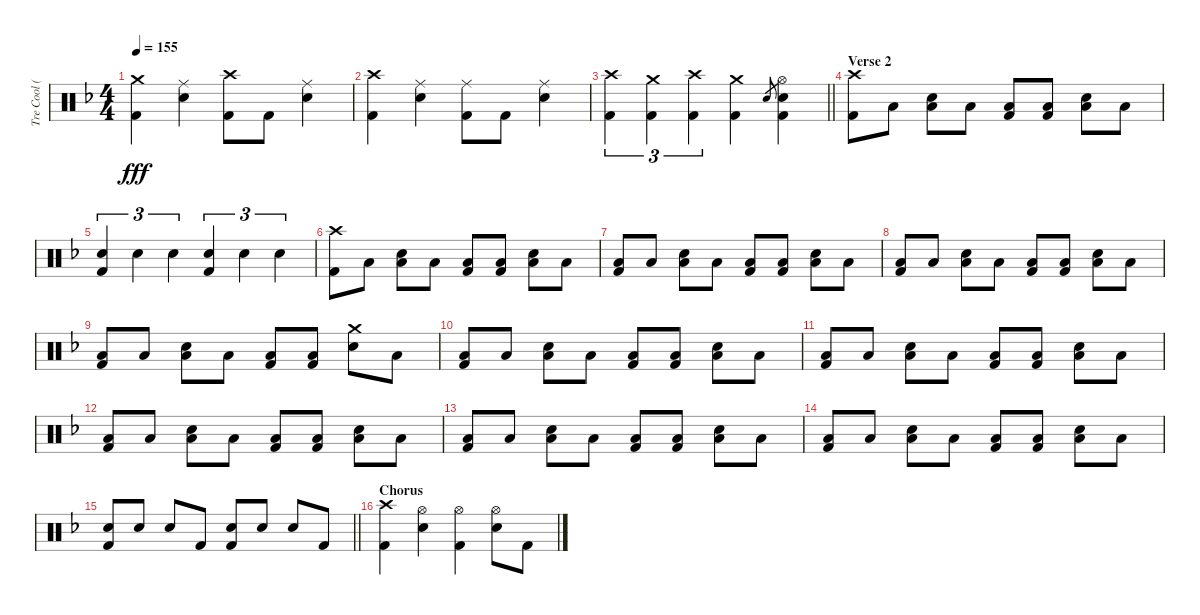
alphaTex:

\track ("Tre Cool (Drums)" "Tre Cool (") {instrument percussion}
\staff {score}
\articulation defaults
\ts (4 4)
\tempo 155
\clef neutral
\ks f
("Crash medium (hit)" "Kick (hit) 2").4{dy fff} ("Ride (middle)" "Electric Snare (hit)").4 ("Crash high (hit)" "Kick (hit) 2").8 "Kick (hit) 2".8 ("Ride (middle)" "Electric Snare (hit)").4 |
("Crash high (hit)" "Kick (hit) 2").4 ("Ride (middle)" "Electric Snare (hit)").4 ("Ride (middle)" "Kick (hit) 2").8 "Kick (hit) 2".8 ("Ride (middle)" "Electric Snare (hit)").4 |
\barLineRight lightlight
("Crash high (hit)" "Kick (hit) 2").4{tu (3 2)} ("Crash medium (hit)" "Kick (hit) 2").4{tu (3 2)} ("Crash high (hit)" "Kick (hit) 2").4{tu (3 2)} ("Crash medium (hit)" "Kick (hit) 2").4 "Electric Snare (hit)".8{gr} ("Hi-Hat (open)" "Electric Snare (hit)" "Kick (hit) 2").4 |
\section ("" "Verse 2")
("Crash high (hit)" "Kick (hit) 2").8 "Low Floor Tom (hit)".8 ("Low Floor Tom (hit)" "Electric Snare (hit)").8 "Low Floor Tom (hit)".8 ("Low Floor Tom (hit)" "Kick (hit) 2").8 ("Low Floor Tom (hit)" "Kick (hit) 2").8 ("Low Floor Tom (hit)" "Electric Snare (hit)").8 "Low Floor Tom (hit)".8 |
("Electric Snare (hit)" "Kick (hit) 2").4{tu (3 2)} "Electric Snare (hit)".4{tu (3 2)} "Electric Snare (hit)".4{tu (3 2)} ("Electric Snare (hit)" "Kick (hit) 2").4{tu (3 2)} "Electric Snare (hit)".4{tu (3 2)} "Electric Snare (hit)".4{tu (3 2)} |
("Crash high (hit)" "Kick (hit) 2").8 "Low Floor Tom (hit)".8 ("Low Floor Tom (hit)" "Electric Snare (hit)").8 "Low Floor Tom (hit)".8 ("Low Floor Tom (hit)" "Kick (hit) 2").8 ("Low Floor Tom (hit)" "Kick (hit) 2").8 ("Low Floor Tom (hit)" "Electric Snare (hit)").8 "Low Floor Tom (hit)".8 |
("Low Floor Tom (hit)" "Kick (hit) 2").8 "Low Floor Tom (hit)".8 ("Low Floor Tom (hit)" "Electric Snare (hit)").8 "Low Floor Tom (hit)".8 ("Low Floor Tom (hit)" "Kick (hit) 2").8 ("Low Floor Tom (hit)" "Kick (hit) 2").8 ("Low Floor Tom (hit)" "Electric Snare (hit)").8 "Low Floor Tom (hit)".8 |
("Low Floor Tom (hit)" "Kick (hit) 2").8 "Low Floor Tom (hit)".8 ("Low Floor Tom (hit)" "Electric Snare (hit)").8 "Low Floor Tom (hit)".8 ("Low Floor Tom (hit)" "Kick (hit) 2").8 ("Low Floor Tom (hit)" "Kick (hit) 2").8 ("Low Floor Tom (hit)" "Electric Snare (hit)").8 "Low Floor Tom (hit)".8 |
("Low Floor Tom (hit)" "Kick (hit) 2").8 "Low Floor Tom (hit)".8 ("Low Floor Tom (hit)" "Electric Snare (hit)").8 "Low Floor Tom (hit)".8 ("Low Floor Tom (hit)" "Kick (hit) 2").8 ("Low Floor Tom (hit)" "Kick (hit) 2").8 ("Crash medium (hit)" "Electric Snare (hit)").8 "Low Floor Tom (hit)".8 |
("Low Floor Tom (hit)" "Kick (hit) 2").8 "Low Floor Tom (hit)".8 ("Low Floor Tom (hit)" "Electric Snare (hit)").8 "Low Floor Tom (hit)".8 ("Low Floor Tom (hit)" "Kick (hit) 2").8 ("Low Floor Tom (hit)" "Kick (hit) 2").8 ("Low Floor Tom (hit)" "Electric Snare (hit)").8 "Low Floor Tom (hit)".8 |
("Low Floor Tom (hit)" "Kick (hit) 2").8 "Low Floor Tom (hit)".8 ("Low Floor Tom (hit)" "Electric Snare (hit)").8 "Low Floor Tom (hit)".8 ("Low Floor Tom (hit)" "Kick (hit) 2").8 ("Low Floor Tom (hit)" "Kick (hit) 2").8 ("Low Floor Tom (hit)" "Electric Snare (hit)").8 "Low Floor Tom (hit)".8 |
("Low Floor Tom (hit)" "Kick (hit) 2").8 "Low Floor Tom (hit)".8 ("Low Floor Tom (hit)" "Electric Snare (hit)").8 "Low Floor Tom (hit)".8 ("Low Floor Tom (hit)" "Kick (hit) 2").8 ("Low Floor Tom (hit)" "Kick (hit) 2").8 ("Low Floor Tom (hit)" "Electric Snare (hit)").8 "Low Floor Tom (hit)".8 |
("Low Floor Tom (hit)" "Kick (hit) 2").8 "Low Floor Tom (hit)".8 ("Low Floor Tom (hit)" "Electric Snare (hit)").8 "Low Floor Tom (hit)".8 ("Low Floor Tom (hit)" "Kick (hit) 2").8 ("Low Floor Tom (hit)" "Kick (hit) 2").8 ("Low Floor Tom (hit)" "Electric Snare (hit)").8 "Low Floor Tom (hit)".8 |
("Low Floor Tom (hit)" "Kick (hit) 2").8 "Low Floor Tom (hit)".8 ("Low Floor Tom (hit)" "Electric Snare (hit)").8 "Low Floor Tom (hit)".8 ("Low Floor Tom (hit)" "Kick (hit) 2").8 ("Low Floor Tom (hit)" "Kick (hit) 2").8 ("Low Floor Tom (hit)" "Electric Snare (hit)").8 "Low Floor Tom (hit)".8 |
\barLineRight lightlight
("Electric Snare (hit)" "Kick (hit) 2").8 "Electric Snare (hit)".8 "Electric Snare (hit)".8 "Kick (hit) 2".8 ("Electric Snare (hit)" "Kick (hit) 2").8 "Electric Snare (hit)".8 "Electric Snare (hit)".8 "Kick (hit) 2".8 |
\section ("" "Chorus")
("Crash high (hit)" "Kick (hit) 2").4 ("Hi-Hat (open)" "Electric Snare (hit)").4 ("Hi-Hat (open)" "Kick (hit) 2").4 ("Hi-Hat (open)" "Electric Snare (hit)").8 "Kick (hit) 2".8
